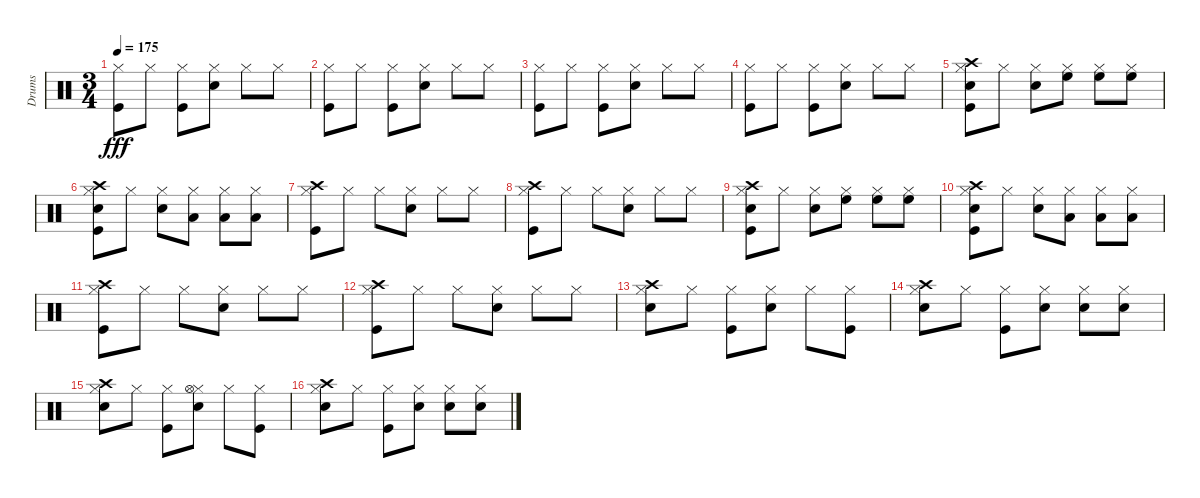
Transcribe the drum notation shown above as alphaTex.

\track ("Drums" "Drums") {instrument percussion}
\staff {score}
\articulation defaults
\ts (3 4)
\tempo 175
\clef neutral
\ks c
("Hi-Hat (closed)" "Kick (hit)").8{dy fff} "Hi-Hat (closed)".8 ("Hi-Hat (closed)" "Kick (hit)").8 ("Hi-Hat (closed)" "Snare (hit) 2").8 "Hi-Hat (closed)".8 "Hi-Hat (closed)".8 |
("Hi-Hat (closed)" "Kick (hit)").8 "Hi-Hat (closed)".8 ("Hi-Hat (closed)" "Kick (hit)").8 ("Hi-Hat (closed)" "Snare (hit) 2").8 "Hi-Hat (closed)".8 "Hi-Hat (closed)".8 |
("Hi-Hat (closed)" "Kick (hit)").8 "Hi-Hat (closed)".8 ("Hi-Hat (closed)" "Kick (hit)").8 ("Hi-Hat (closed)" "Snare (hit) 2").8 "Hi-Hat (closed)".8 "Hi-Hat (closed)".8 |
("Hi-Hat (closed)" "Kick (hit)").8 "Hi-Hat (closed)".8 ("Hi-Hat (closed)" "Kick (hit)").8 ("Hi-Hat (closed)" "Snare (hit) 2").8 "Hi-Hat (closed)".8 "Hi-Hat (closed)".8 |
("Hi-Hat (closed)" "Crash high (hit)" "Snare (hit) 2" "Kick (hit)").8 "Hi-Hat (closed)".8 ("Hi-Hat (closed)" "Snare (hit) 2").8 ("Hi-Hat (closed)" "High Floor Tom (hit)").8 ("Hi-Hat (closed)" "High Floor Tom (hit)").8 ("Hi-Hat (closed)" "High Floor Tom (hit)").8 |
("Hi-Hat (closed)" "Snare (hit) 2" "Crash high (hit)" "Kick (hit)").8 "Hi-Hat (closed)".8 ("Hi-Hat (closed)" "Snare (hit) 2").8 ("Hi-Hat (closed)" "Low Tom (hit)").8 ("Hi-Hat (closed)" "Low Tom (hit)").8 ("Hi-Hat (closed)" "Low Tom (hit)").8 |
("Hi-Hat (closed)" "Crash high (hit)" "Kick (hit)").8 "Hi-Hat (closed)".8 "Hi-Hat (closed)".8 ("Hi-Hat (closed)" "Snare (hit) 2").8 "Hi-Hat (closed)".8 "Hi-Hat (closed)".8 |
("Hi-Hat (closed)" "Crash high (hit)" "Kick (hit)").8 "Hi-Hat (closed)".8 "Hi-Hat (closed)".8 ("Hi-Hat (closed)" "Snare (hit) 2").8 "Hi-Hat (closed)".8 "Hi-Hat (closed)".8 |
("Hi-Hat (closed)" "Crash high (hit)" "Snare (hit) 2" "Kick (hit)").8 "Hi-Hat (closed)".8 ("Hi-Hat (closed)" "Snare (hit) 2").8 ("Hi-Hat (closed)" "High Floor Tom (hit)").8 ("Hi-Hat (closed)" "High Floor Tom (hit)").8 ("Hi-Hat (closed)" "High Floor Tom (hit)").8 |
("Hi-Hat (closed)" "Snare (hit) 2" "Crash high (hit)" "Kick (hit)").8 "Hi-Hat (closed)".8 ("Hi-Hat (closed)" "Snare (hit) 2").8 ("Hi-Hat (closed)" "Low Tom (hit)").8 ("Hi-Hat (closed)" "Low Tom (hit)").8 ("Hi-Hat (closed)" "Low Tom (hit)").8 |
("Hi-Hat (closed)" "Crash high (hit)" "Kick (hit)").8 "Hi-Hat (closed)".8 "Hi-Hat (closed)".8 ("Hi-Hat (closed)" "Snare (hit) 2").8 "Hi-Hat (closed)".8 "Hi-Hat (closed)".8 |
("Hi-Hat (closed)" "Crash high (hit)" "Kick (hit)").8 "Hi-Hat (closed)".8 "Hi-Hat (closed)".8 ("Hi-Hat (closed)" "Snare (hit) 2").8 "Hi-Hat (closed)".8 "Hi-Hat (closed)".8 |
("Snare (hit) 2" "Crash high (hit)" "Hi-Hat (closed)").8 "Hi-Hat (closed)".8 ("Kick (hit)" "Hi-Hat (closed)").8 ("Snare (hit) 2" "Hi-Hat (closed)").8 "Hi-Hat (closed)".8 ("Kick (hit)" "Hi-Hat (closed)").8 |
("Snare (hit) 2" "Crash high (hit)" "Hi-Hat (closed)").8 "Hi-Hat (closed)".8 ("Kick (hit)" "Hi-Hat (closed)").8 ("Hi-Hat (closed)" "Snare (hit) 2").8 ("Hi-Hat (closed)" "Snare (hit) 2").8 ("Hi-Hat (closed)" "Snare (hit) 2").8 |
("Crash high (hit)" "Snare (hit) 2" "Hi-Hat (closed)").8 "Hi-Hat (closed)".8 ("Kick (hit)" "Hi-Hat (closed)").8 ("Snare (hit) 2" "Hi-Hat (closed)" "Hi-Hat (open)").8 "Hi-Hat (closed)".8 ("Kick (hit)" "Hi-Hat (closed)").8 |
("Crash high (hit)" "Snare (hit) 2" "Hi-Hat (closed)").8 "Hi-Hat (closed)".8 ("Kick (hit)" "Hi-Hat (closed)").8 ("Snare (hit) 2" "Hi-Hat (closed)").8 ("Snare (hit) 2" "Hi-Hat (closed)").8 ("Snare (hit) 2" "Hi-Hat (closed)").8
